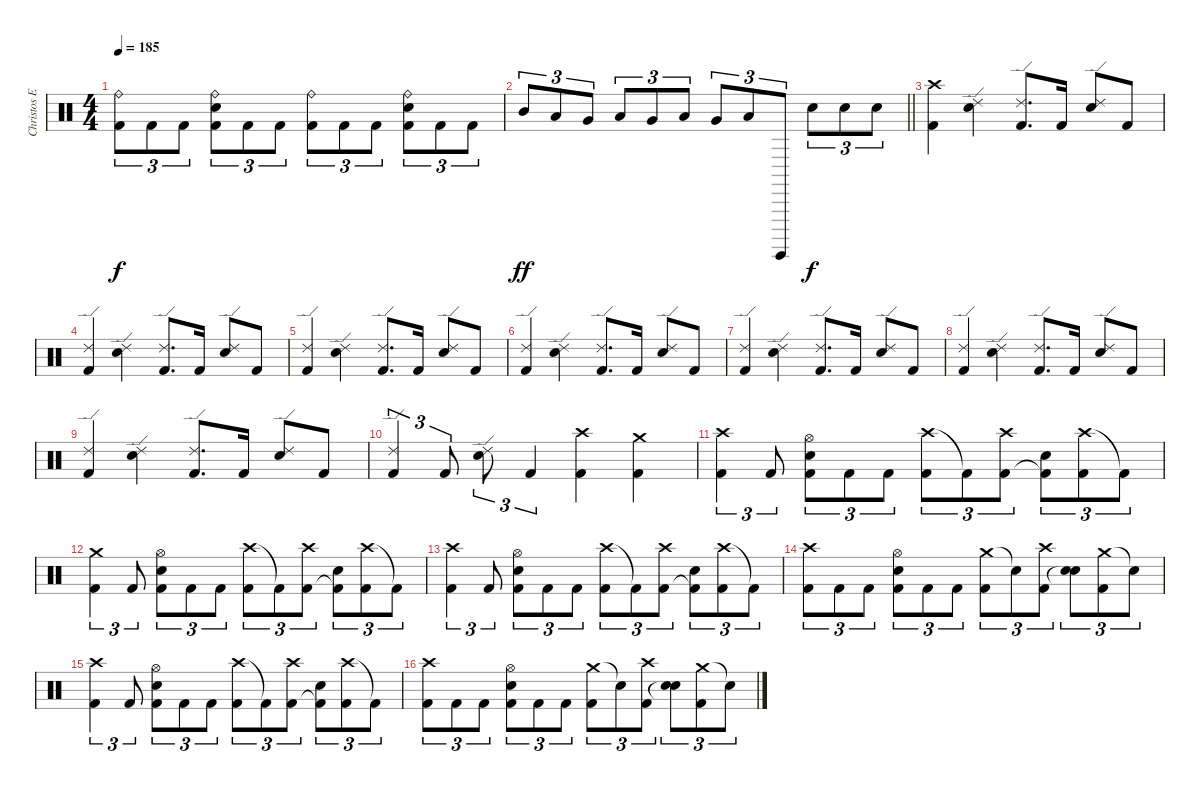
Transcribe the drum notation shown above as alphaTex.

\track ("Christos Ephitimiadis (drums)" "Christos E") {instrument percussion}
\staff {score}
\articulation defaults
\ts (4 4)
\tempo 185
\clef neutral
\ks c
("Ride (bell)" "Kick (hit) 2").8{tu (3 2) dy f} "Kick (hit) 2".8{tu (3 2)} "Kick (hit) 2".8{tu (3 2)} ("Ride (bell)" "Snare (hit) 2" "Kick (hit) 2").8{tu (3 2)} "Kick (hit) 2".8{tu (3 2)} "Kick (hit) 2".8{tu (3 2)} ("Ride (bell)" "Kick (hit) 2").8{tu (3 2)} "Kick (hit) 2".8{tu (3 2)} "Kick (hit) 2".8{tu (3 2)} ("Ride (bell)" "Snare (hit) 2" "Kick (hit) 2").8{tu (3 2)} "Kick (hit) 2".8{tu (3 2)} "Kick (hit) 2".8{tu (3 2)} |
\barLineRight lightlight "Mid Tom (hit)".8{tu (3 2) dy ff} "Low Tom (hit)".8{tu (3 2)} "Very Low Tom (hit)".8{tu (3 2)} "Low Tom (hit)".8{tu (3 2)} "Very Low Tom (hit)".8{tu (3 2)} "Low Floor Tom (hit)".8{tu (3 2)} "Very Low Tom (hit)".8{tu (3 2)} "Low Floor Tom (hit)".8{tu (3 2)} "Surdo (hit)".8{tu (3 2)} "Snare (hit) 2".8{tu (3 2) dy f} "Snare (hit) 2".8{tu (3 2)} "Snare (hit) 2".8{tu (3 2)}
|
\section ("" "")
("Crash high (hit)" "Kick (hit) 2").4 ("Ride (edge) 2" "Snare (hit) 2").4 ("Ride (edge) 2" "Kick (hit) 2").8{d} "Kick (hit) 2".16 ("Ride (edge) 2" "Snare (hit) 2").8 "Kick (hit) 2".8 |
("Ride (edge) 2" "Kick (hit) 2").4 ("Ride (edge) 2" "Snare (hit) 2").4 ("Ride (edge) 2" "Kick (hit) 2").8{d} "Kick (hit) 2".16 ("Ride (edge) 2" "Snare (hit) 2").8 "Kick (hit) 2".8 |
("Ride (edge) 2" "Kick (hit) 2").4 ("Ride (edge) 2" "Snare (hit) 2").4 ("Ride (edge) 2" "Kick (hit) 2").8{d} "Kick (hit) 2".16 ("Ride (edge) 2" "Snare (hit) 2").8 "Kick (hit) 2".8 |
("Ride (edge) 2" "Kick (hit) 2").4 ("Ride (edge) 2" "Snare (hit) 2").4 ("Ride (edge) 2" "Kick (hit) 2").8{d} "Kick (hit) 2".16 ("Ride (edge) 2" "Snare (hit) 2").8 "Kick (hit) 2".8 |
("Ride (edge) 2" "Kick (hit) 2").4 ("Ride (edge) 2" "Snare (hit) 2").4 ("Ride (edge) 2" "Kick (hit) 2").8{d} "Kick (hit) 2".16 ("Ride (edge) 2" "Snare (hit) 2").8 "Kick (hit) 2".8 |
("Ride (edge) 2" "Kick (hit) 2").4 ("Ride (edge) 2" "Snare (hit) 2").4 ("Ride (edge) 2" "Kick (hit) 2").8{d} "Kick (hit) 2".16 ("Ride (edge) 2" "Snare (hit) 2").8 "Kick (hit) 2".8 |
("Ride (edge) 2" "Kick (hit) 2").4 ("Ride (edge) 2" "Snare (hit) 2").4 ("Ride (edge) 2" "Kick (hit) 2").8{d} "Kick (hit) 2".16 ("Ride (edge) 2" "Snare (hit) 2").8 "Kick (hit) 2".8 |
("Ride (edge) 2" "Kick (hit) 2").4{tu (3 2)} "Kick (hit) 2".8{tu (3 2)} ("Ride (edge) 2" "Snare (hit) 2").8{tu (3 2)} "Kick (hit) 2".4{tu (3 2)} ("Crash high (hit)" "Kick (hit) 2").4 ("Crash medium (hit)" "Kick (hit) 2").4 |
("Crash high (hit)" "Kick (hit) 2").4{tu (3 2)} "Kick (hit) 2".8{tu (3 2)} ("Hi-Hat (open)" "Snare (hit) 2" "Kick (hit) 2").8{tu (3 2)} "Kick (hit) 2".8{tu (3 2)} "Kick (hit) 2".8{tu (3 2)} ("Crash high (hit)" "Kick (hit) 2").8{tu (3 2)} "Kick (hit) 2"{t}.8{tu (3 2)} ("Crash high (hit)" "Kick (hit) 2").8{tu (3 2)} ("Snare (hit) 2" "Kick (hit) 2"{t}).8{tu (3 2)} ("Crash high (hit)" "Kick (hit) 2").8{tu (3 2)} "Kick (hit) 2"{t}.8{tu (3 2)} |
("Crash medium (hit)" "Kick (hit) 2").4{tu (3 2)} "Kick (hit) 2".8{tu (3 2)} ("Hi-Hat (open)" "Snare (hit) 2" "Kick (hit) 2").8{tu (3 2)} "Kick (hit) 2".8{tu (3 2)} "Kick (hit) 2".8{tu (3 2)} ("Crash high (hit)" "Kick (hit) 2").8{tu (3 2)} "Kick (hit) 2"{t}.8{tu (3 2)} ("Crash high (hit)" "Kick (hit) 2").8{tu (3 2)} ("Snare (hit) 2" "Kick (hit) 2"{t}).8{tu (3 2)} ("Crash high (hit)" "Kick (hit) 2").8{tu (3 2)} "Kick (hit) 2"{t}.8{tu (3 2)} |
("Crash high (hit)" "Kick (hit) 2").4{tu (3 2)} "Kick (hit) 2".8{tu (3 2)} ("Hi-Hat (open)" "Snare (hit) 2" "Kick (hit) 2").8{tu (3 2)} "Kick (hit) 2".8{tu (3 2)} "Kick (hit) 2".8{tu (3 2)} ("Crash high (hit)" "Kick (hit) 2").8{tu (3 2)} "Kick (hit) 2"{t}.8{tu (3 2)} ("Crash high (hit)" "Kick (hit) 2").8{tu (3 2)} ("Snare (hit) 2" "Kick (hit) 2"{t}).8{tu (3 2)} ("Crash high (hit)" "Kick (hit) 2").8{tu (3 2)} "Kick (hit) 2"{t}.8{tu (3 2)} |
("Crash high (hit)" "Kick (hit) 2").8{tu (3 2)} "Kick (hit) 2".8{tu (3 2)} "Kick (hit) 2".8{tu (3 2)} ("Hi-Hat (open)" "Snare (hit) 2" "Kick (hit) 2").8{tu (3 2)} "Kick (hit) 2".8{tu (3 2)} "Kick (hit) 2".8{tu (3 2)} ("Crash medium (hit)" "Kick (hit) 2").8{tu (3 2)} "Snare (hit)"{t}.8{tu (3 2)} ("Crash high (hit)" "Kick (hit) 2").8{tu (3 2)} ("Snare (hit) 2" "Snare (hit)"{t}).8{tu (3 2)} ("Crash medium (hit)" "Kick (hit) 2").8{tu (3 2)} "Snare (hit)"{t}.8{tu (3 2)} |
("Crash high (hit)" "Kick (hit) 2").4{tu (3 2)} "Kick (hit) 2".8{tu (3 2)} ("Hi-Hat (open)" "Snare (hit) 2" "Kick (hit) 2").8{tu (3 2)} "Kick (hit) 2".8{tu (3 2)} "Kick (hit) 2".8{tu (3 2)} ("Crash high (hit)" "Kick (hit) 2").8{tu (3 2)} "Kick (hit) 2"{t}.8{tu (3 2)} ("Crash high (hit)" "Kick (hit) 2").8{tu (3 2)} ("Snare (hit) 2" "Kick (hit) 2"{t}).8{tu (3 2)} ("Crash high (hit)" "Kick (hit) 2").8{tu (3 2)} "Kick (hit) 2"{t}.8{tu (3 2)} |
("Crash high (hit)" "Kick (hit) 2").8{tu (3 2)} "Kick (hit) 2".8{tu (3 2)} "Kick (hit) 2".8{tu (3 2)} ("Hi-Hat (open)" "Snare (hit) 2" "Kick (hit) 2").8{tu (3 2)} "Kick (hit) 2".8{tu (3 2)} "Kick (hit) 2".8{tu (3 2)} ("Crash medium (hit)" "Kick (hit) 2").8{tu (3 2)} "Snare (hit)"{t}.8{tu (3 2)} ("Crash high (hit)" "Kick (hit) 2").8{tu (3 2)} ("Snare (hit) 2" "Snare (hit)"{t}).8{tu (3 2)} ("Crash medium (hit)" "Kick (hit) 2").8{tu (3 2)} "Snare (hit)"{t}.8{tu (3 2)}
